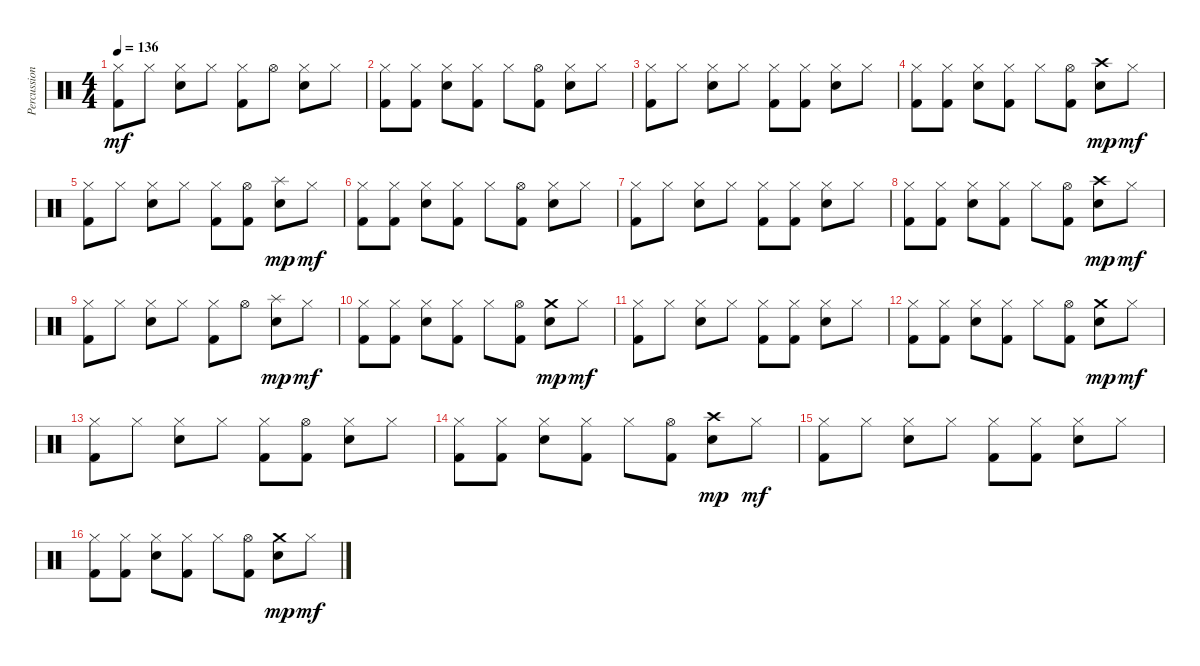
\track ("Percussions" "Percussion") {instrument percussion}
\staff {score}
\articulation defaults
\ts (4 4)
\tempo 136
\clef neutral
\ks c
("Hi-Hat (closed)" "Kick (hit) 2").8{dy mf} "Hi-Hat (closed)".8 ("Hi-Hat (closed)" "Electric Snare (hit)").8 "Hi-Hat (closed)".8 ("Hi-Hat (closed)" "Kick (hit) 2").8 "Hi-Hat (open)".8 ("Hi-Hat (closed)" "Electric Snare (hit)").8 "Hi-Hat (closed)".8 |
("Hi-Hat (closed)" "Kick (hit) 2").8 ("Hi-Hat (closed)" "Kick (hit) 2").8 ("Hi-Hat (closed)" "Electric Snare (hit)").8 ("Hi-Hat (closed)" "Kick (hit) 2").8 "Hi-Hat (closed)".8 ("Hi-Hat (open)" "Kick (hit) 2").8 ("Hi-Hat (closed)" "Electric Snare (hit)").8 "Hi-Hat (closed)".8 |
("Hi-Hat (closed)" "Kick (hit) 2").8 "Hi-Hat (closed)".8 ("Hi-Hat (closed)" "Electric Snare (hit)").8 "Hi-Hat (closed)".8 ("Hi-Hat (closed)" "Kick (hit) 2").8 ("Hi-Hat (closed)" "Kick (hit) 2").8 ("Hi-Hat (closed)" "Electric Snare (hit)").8 "Hi-Hat (closed)".8 |
("Hi-Hat (closed)" "Kick (hit) 2").8 ("Hi-Hat (closed)" "Kick (hit) 2").8 ("Hi-Hat (closed)" "Electric Snare (hit)").8 ("Hi-Hat (closed)" "Kick (hit) 2").8 "Hi-Hat (closed)".8 ("Hi-Hat (open)" "Kick (hit) 2").8 ("Crash high (hit)" "Electric Snare (hit)").8{dy mp} "Hi-Hat (closed)".8{dy mf} |
("Hi-Hat (closed)" "Kick (hit) 2").8 "Hi-Hat (closed)".8 ("Hi-Hat (closed)" "Electric Snare (hit)").8 "Hi-Hat (closed)".8 ("Hi-Hat (closed)" "Kick (hit) 2").8 ("Hi-Hat (open)" "Kick (hit) 2").8 ("Splash (hit)" "Electric Snare (hit)").8{dy mp} "Hi-Hat (closed)".8{dy mf} |
("Hi-Hat (closed)" "Kick (hit) 2").8 ("Hi-Hat (closed)" "Kick (hit) 2").8 ("Hi-Hat (closed)" "Electric Snare (hit)").8 ("Hi-Hat (closed)" "Kick (hit) 2").8 "Hi-Hat (closed)".8 ("Hi-Hat (open)" "Kick (hit) 2").8 ("Hi-Hat (closed)" "Electric Snare (hit)").8 "Hi-Hat (closed)".8 |
("Hi-Hat (closed)" "Kick (hit) 2").8 "Hi-Hat (closed)".8 ("Hi-Hat (closed)" "Electric Snare (hit)").8 "Hi-Hat (closed)".8 ("Hi-Hat (closed)" "Kick (hit) 2").8 ("Hi-Hat (closed)" "Kick (hit) 2").8 ("Hi-Hat (closed)" "Electric Snare (hit)").8 "Hi-Hat (closed)".8 |
("Hi-Hat (closed)" "Kick (hit) 2").8 ("Hi-Hat (closed)" "Kick (hit) 2").8 ("Hi-Hat (closed)" "Electric Snare (hit)").8 ("Hi-Hat (closed)" "Kick (hit) 2").8 "Hi-Hat (closed)".8 ("Hi-Hat (open)" "Kick (hit) 2").8 ("Crash high (hit)" "Electric Snare (hit)").8{dy mp} "Hi-Hat (closed)".8{dy mf} |
("Hi-Hat (closed)" "Kick (hit) 2").8 "Hi-Hat (closed)".8 ("Hi-Hat (closed)" "Electric Snare (hit)").8 "Hi-Hat (closed)".8 ("Hi-Hat (closed)" "Kick (hit) 2").8 "Hi-Hat (open)".8 ("Splash (hit)" "Electric Snare (hit)").8{dy mp} "Hi-Hat (closed)".8{dy mf} |
("Hi-Hat (closed)" "Kick (hit) 2").8 ("Hi-Hat (closed)" "Kick (hit) 2").8 ("Hi-Hat (closed)" "Electric Snare (hit)").8 ("Hi-Hat (closed)" "Kick (hit) 2").8 "Hi-Hat (closed)".8 ("Hi-Hat (open)" "Kick (hit) 2").8 ("Crash medium (hit)" "Electric Snare (hit)").8{dy mp} "Hi-Hat (closed)".8{dy mf} |
("Hi-Hat (closed)" "Kick (hit) 2").8 "Hi-Hat (closed)".8 ("Hi-Hat (closed)" "Electric Snare (hit)").8 "Hi-Hat (closed)".8 ("Hi-Hat (closed)" "Kick (hit) 2").8 ("Hi-Hat (closed)" "Kick (hit) 2").8 ("Hi-Hat (closed)" "Electric Snare (hit)").8 "Hi-Hat (closed)".8 |
("Hi-Hat (closed)" "Kick (hit) 2").8 ("Hi-Hat (closed)" "Kick (hit) 2").8 ("Hi-Hat (closed)" "Electric Snare (hit)").8 ("Hi-Hat (closed)" "Kick (hit) 2").8 "Hi-Hat (closed)".8 ("Hi-Hat (open)" "Kick (hit) 2").8 ("Crash medium (hit)" "Electric Snare (hit)").8{dy mp} "Hi-Hat (closed)".8{dy mf} |
("Hi-Hat (closed)" "Kick (hit) 2").8 "Hi-Hat (closed)".8 ("Hi-Hat (closed)" "Electric Snare (hit)").8 "Hi-Hat (closed)".8 ("Hi-Hat (closed)" "Kick (hit) 2").8 ("Hi-Hat (open)" "Kick (hit) 2").8 ("Hi-Hat (closed)" "Electric Snare (hit)").8 "Hi-Hat (closed)".8 |
("Hi-Hat (closed)" "Kick (hit) 2").8 ("Hi-Hat (closed)" "Kick (hit) 2").8 ("Hi-Hat (closed)" "Electric Snare (hit)").8 ("Hi-Hat (closed)" "Kick (hit) 2").8 "Hi-Hat (closed)".8 ("Hi-Hat (open)" "Kick (hit) 2").8 ("Crash high (hit)" "Electric Snare (hit)").8{dy mp} "Hi-Hat (closed)".8{dy mf} |
("Hi-Hat (closed)" "Kick (hit) 2").8 "Hi-Hat (closed)".8 ("Hi-Hat (closed)" "Electric Snare (hit)").8 "Hi-Hat (closed)".8 ("Hi-Hat (closed)" "Kick (hit) 2").8 ("Hi-Hat (closed)" "Kick (hit) 2").8 ("Hi-Hat (closed)" "Electric Snare (hit)").8 "Hi-Hat (closed)".8 |
("Hi-Hat (closed)" "Kick (hit) 2").8 ("Hi-Hat (closed)" "Kick (hit) 2").8 ("Hi-Hat (closed)" "Electric Snare (hit)").8 ("Hi-Hat (closed)" "Kick (hit) 2").8 "Hi-Hat (closed)".8 ("Hi-Hat (open)" "Kick (hit) 2").8 ("Crash medium (hit)" "Electric Snare (hit)").8{dy mp} "Hi-Hat (closed)".8{dy mf}
